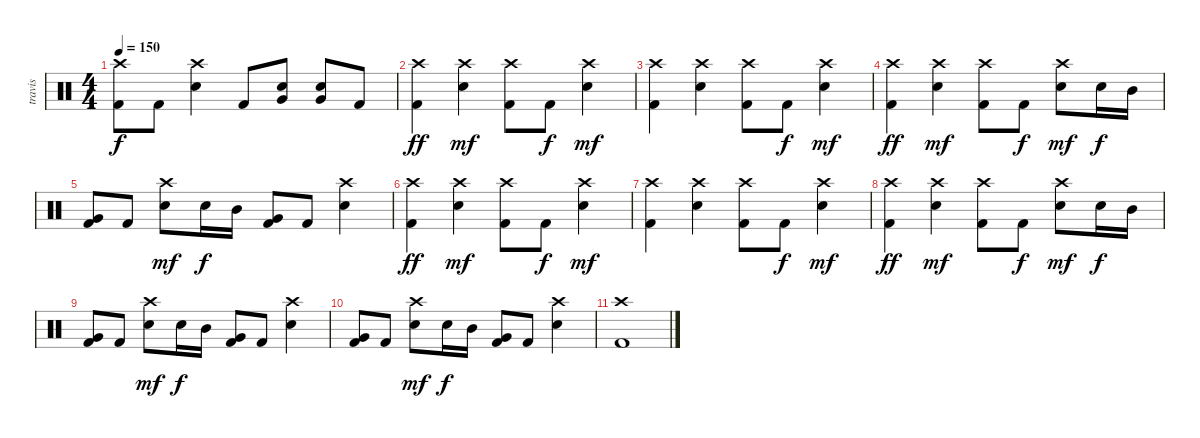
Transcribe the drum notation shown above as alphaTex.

\track ("travis" "travis") {instrument percussion}
\staff {score}
\articulation defaults
\ts (4 4)
\tempo 150
\clef neutral
\ks c
("Crash high (hit)" "Kick (hit) 2").8{dy f} "Kick (hit) 2".8 ("Crash high (hit)" "Electric Snare (hit)").4 "Kick (hit) 2".8 ("Very Low Tom (hit)" "Electric Snare (hit)").8 ("Very Low Tom (hit)" "Electric Snare (hit)").8 "Kick (hit) 2".8 |
("Crash high (hit)" "Kick (hit) 2").4{dy ff} ("Crash high (hit)" "Electric Snare (hit)").4{dy mf} ("Crash high (hit)" "Kick (hit) 2").8 "Kick (hit) 2".8{dy f} ("Crash high (hit)" "Electric Snare (hit)").4{dy mf} |
("Crash high (hit)" "Kick (hit) 2").4 ("Crash high (hit)" "Electric Snare (hit)").4 ("Crash high (hit)" "Kick (hit) 2").8 "Kick (hit) 2".8{dy f} ("Crash high (hit)" "Electric Snare (hit)").4{dy mf} |
("Crash high (hit)" "Kick (hit) 2").4{dy ff} ("Crash high (hit)" "Electric Snare (hit)").4{dy mf} ("Crash high (hit)" "Kick (hit) 2").8 "Kick (hit) 2".8{dy f} ("Crash high (hit)" "Electric Snare (hit)").8{dy mf} "Electric Snare (hit)".16{dy f} "Mid Tom (hit)".16 |
("Very Low Tom (hit)" "Kick (hit) 2").8 "Kick (hit) 2".8 ("Crash high (hit)" "Electric Snare (hit)").8{dy mf} "Electric Snare (hit)".16{dy f} "Mid Tom (hit)".16 ("Very Low Tom (hit)" "Kick (hit) 2").8 "Kick (hit) 2".8 ("Crash high (hit)" "Electric Snare (hit)").4 |
("Crash high (hit)" "Kick (hit) 2").4{dy ff} ("Crash high (hit)" "Electric Snare (hit)").4{dy mf} ("Crash high (hit)" "Kick (hit) 2").8 "Kick (hit) 2".8{dy f} ("Crash high (hit)" "Electric Snare (hit)").4{dy mf} |
("Crash high (hit)" "Kick (hit) 2").4 ("Crash high (hit)" "Electric Snare (hit)").4 ("Crash high (hit)" "Kick (hit) 2").8 "Kick (hit) 2".8{dy f} ("Crash high (hit)" "Electric Snare (hit)").4{dy mf} |
("Crash high (hit)" "Kick (hit) 2").4{dy ff} ("Crash high (hit)" "Electric Snare (hit)").4{dy mf} ("Crash high (hit)" "Kick (hit) 2").8 "Kick (hit) 2".8{dy f} ("Crash high (hit)" "Electric Snare (hit)").8{dy mf} "Electric Snare (hit)".16{dy f} "Mid Tom (hit)".16 |
("Very Low Tom (hit)" "Kick (hit) 2").8 "Kick (hit) 2".8 ("Crash high (hit)" "Electric Snare (hit)").8{dy mf} "Electric Snare (hit)".16{dy f} "Mid Tom (hit)".16 ("Very Low Tom (hit)" "Kick (hit) 2").8 "Kick (hit) 2".8 ("Crash high (hit)" "Electric Snare (hit)").4 |
("Very Low Tom (hit)" "Kick (hit) 2").8 "Kick (hit) 2".8 ("Crash high (hit)" "Electric Snare (hit)").8{dy mf} "Electric Snare (hit)".16{dy f} "Mid Tom (hit)".16 ("Very Low Tom (hit)" "Kick (hit) 2").8 "Kick (hit) 2".8 ("Crash high (hit)" "Electric Snare (hit)").4 |
("Crash high (hit)" "Kick (hit) 2").1
